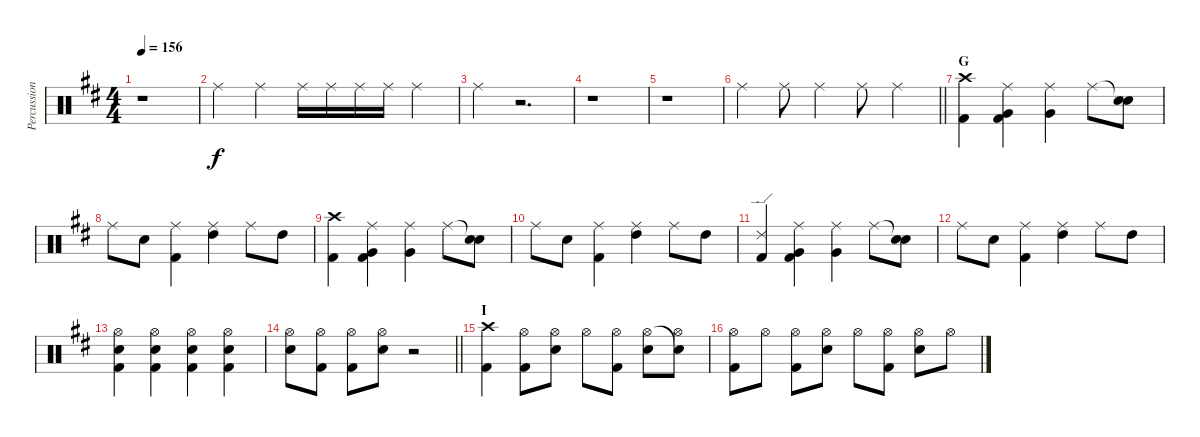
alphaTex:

\track ("Percussion" "Percussion") {instrument percussion}
\staff {score}
\articulation defaults
\ts (4 4)
\tempo 156
\clef neutral
\ks d
r.1{dy f} |
"Ride (middle)".4 "Ride (middle)".4 "Ride (middle)".16 "Ride (middle)".16 "Ride (middle)".16 "Ride (middle)".16 "Ride (middle)".4 |
"Ride (middle)".4 r.2{d} |
r.1 |
r.1 |
\barLineRight lightlight "Ride (middle)".4 "Ride (middle)".8 "Ride (middle)".4 "Ride (middle)".8 "Ride (middle)".4
|
\section ("" "G")
("Crash high (hit)" "Kick (hit) 2").4 ("Ride (middle)" "Very Low Tom (hit)" "Kick (hit) 2").4 ("Ride (middle)" "Very Low Tom (hit)").4 "Ride (middle)".8 ("Snare (hit)"{t} "Electric Snare (hit)").8 |
"Ride (middle)".8 "Electric Snare (hit)".8 ("Ride (middle)" "Kick (hit) 2").4 ("Ride (middle)" "High Tom (hit)").4 "Ride (middle)".8 "High Tom (hit)".8 |
("Crash high (hit)" "Kick (hit) 2").4 ("Ride (middle)" "Very Low Tom (hit)" "Kick (hit) 2").4 ("Ride (middle)" "Very Low Tom (hit)").4 "Ride (middle)".8 ("Snare (hit)"{t} "Electric Snare (hit)").8 |
"Ride (middle)".8 "Electric Snare (hit)".8 ("Ride (middle)" "Kick (hit) 2").4 ("Ride (middle)" "High Tom (hit)").4 "Ride (middle)".8 "High Tom (hit)".8 |
("Ride (edge) 2" "Kick (hit) 2").4 ("Ride (middle)" "Very Low Tom (hit)" "Kick (hit) 2").4 ("Ride (middle)" "Very Low Tom (hit)").4 "Ride (middle)".8 ("Snare (hit)"{t} "Electric Snare (hit)").8 |
"Ride (middle)".8 "Electric Snare (hit)".8 ("Ride (middle)" "Kick (hit) 2").4 ("Ride (middle)" "High Tom (hit)").4 "Ride (middle)".8 "High Tom (hit)".8 |
("Hi-Hat (open)" "Electric Snare (hit)" "Kick (hit) 2").4 ("Hi-Hat (open)" "Electric Snare (hit)" "Kick (hit) 2").4 ("Hi-Hat (open)" "Electric Snare (hit)" "Kick (hit) 2").4 ("Hi-Hat (open)" "Electric Snare (hit)" "Kick (hit) 2").4 |
\barLineRight lightlight
("Hi-Hat (open)" "Electric Snare (hit)").8 ("Hi-Hat (open)" "Kick (hit) 2").8 ("Hi-Hat (open)" "Kick (hit) 2").8 ("Hi-Hat (open)" "Electric Snare (hit)").8 r.2 |
\section ("" "I")
("Crash high (hit)" "Kick (hit) 2").4 ("Hi-Hat (open)" "Kick (hit) 2").8 ("Hi-Hat (open)" "Electric Snare (hit)").8 "Hi-Hat (open)".8 ("Hi-Hat (open)" "Kick (hit) 2").8 ("Hi-Hat (open)" "Electric Snare (hit)").8 ("Snare (hit)"{t} "Hi-Hat (open)").8 |
("Hi-Hat (open)" "Kick (hit) 2").8 "Hi-Hat (open)".8 ("Hi-Hat (open)" "Kick (hit) 2").8 ("Hi-Hat (open)" "Electric Snare (hit)").8 "Hi-Hat (open)".8 ("Hi-Hat (open)" "Kick (hit) 2").8 ("Hi-Hat (open)" "Electric Snare (hit)").8 "Hi-Hat (open)".8
